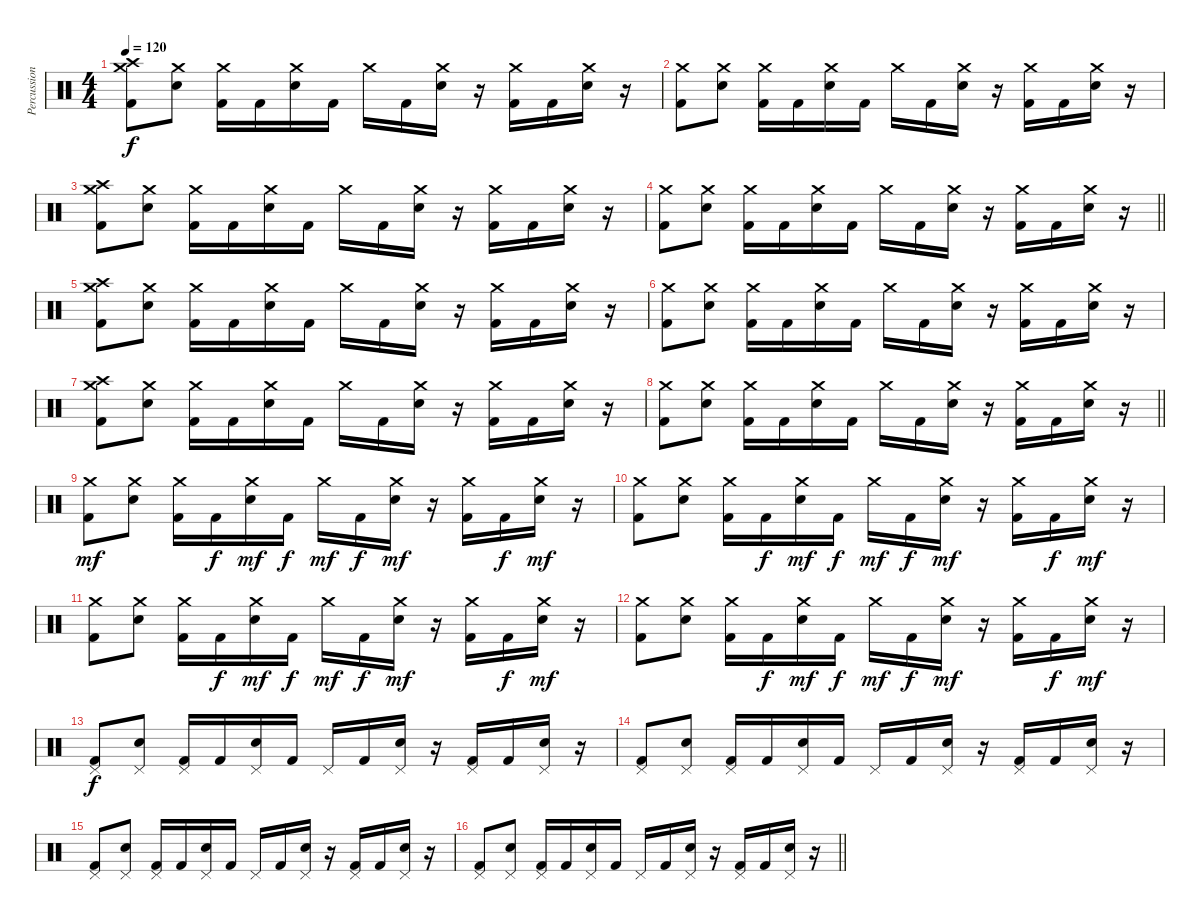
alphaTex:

\track ("Percussion" "Percussion") {instrument percussion}
\staff {score}
\articulation defaults
\ts (4 4)
\tempo 120
\clef neutral
\ks c
("Crash medium (hit)" "Crash high (hit)" "Kick (hit) 2").8{dy f} ("Crash medium (hit)" "Electric Snare (hit)").8 ("Crash medium (hit)" "Kick (hit) 2").16 "Kick (hit) 2".16 ("Crash medium (hit)" "Electric Snare (hit)").16 "Kick (hit) 2".16 "Crash medium (hit)".16 "Kick (hit) 2".16 ("Crash medium (hit)" "Electric Snare (hit)").16 r.16 ("Crash medium (hit)" "Kick (hit) 2").16 "Kick (hit) 2".16 ("Crash medium (hit)" "Electric Snare (hit)").16 r.16 |
("Crash medium (hit)" "Kick (hit) 2").8 ("Crash medium (hit)" "Electric Snare (hit)").8 ("Crash medium (hit)" "Kick (hit) 2").16 "Kick (hit) 2".16 ("Crash medium (hit)" "Electric Snare (hit)").16 "Kick (hit) 2".16 "Crash medium (hit)".16 "Kick (hit) 2".16 ("Crash medium (hit)" "Electric Snare (hit)").16 r.16 ("Crash medium (hit)" "Kick (hit) 2").16 "Kick (hit) 2".16 ("Crash medium (hit)" "Electric Snare (hit)").16 r.16 |
("Crash medium (hit)" "Crash high (hit)" "Kick (hit) 2").8 ("Crash medium (hit)" "Electric Snare (hit)").8 ("Crash medium (hit)" "Kick (hit) 2").16 "Kick (hit) 2".16 ("Crash medium (hit)" "Electric Snare (hit)").16 "Kick (hit) 2".16 "Crash medium (hit)".16 "Kick (hit) 2".16 ("Crash medium (hit)" "Electric Snare (hit)").16 r.16 ("Crash medium (hit)" "Kick (hit) 2").16 "Kick (hit) 2".16 ("Crash medium (hit)" "Electric Snare (hit)").16 r.16 |
\barLineRight lightlight
("Crash medium (hit)" "Kick (hit) 2").8 ("Crash medium (hit)" "Electric Snare (hit)").8 ("Crash medium (hit)" "Kick (hit) 2").16 "Kick (hit) 2".16 ("Crash medium (hit)" "Electric Snare (hit)").16 "Kick (hit) 2".16 "Crash medium (hit)".16 "Kick (hit) 2".16 ("Crash medium (hit)" "Electric Snare (hit)").16 r.16 ("Crash medium (hit)" "Kick (hit) 2").16 "Kick (hit) 2".16 ("Crash medium (hit)" "Electric Snare (hit)").16 r.16 |
("Crash medium (hit)" "Crash high (hit)" "Kick (hit) 2").8 ("Crash medium (hit)" "Electric Snare (hit)").8 ("Crash medium (hit)" "Kick (hit) 2").16 "Kick (hit) 2".16 ("Crash medium (hit)" "Electric Snare (hit)").16 "Kick (hit) 2".16 "Crash medium (hit)".16 "Kick (hit) 2".16 ("Crash medium (hit)" "Electric Snare (hit)").16 r.16 ("Crash medium (hit)" "Kick (hit) 2").16 "Kick (hit) 2".16 ("Crash medium (hit)" "Electric Snare (hit)").16 r.16 |
("Crash medium (hit)" "Kick (hit) 2").8 ("Crash medium (hit)" "Electric Snare (hit)").8 ("Crash medium (hit)" "Kick (hit) 2").16 "Kick (hit) 2".16 ("Crash medium (hit)" "Electric Snare (hit)").16 "Kick (hit) 2".16 "Crash medium (hit)".16 "Kick (hit) 2".16 ("Crash medium (hit)" "Electric Snare (hit)").16 r.16 ("Crash medium (hit)" "Kick (hit) 2").16 "Kick (hit) 2".16 ("Crash medium (hit)" "Electric Snare (hit)").16 r.16 |
("Crash medium (hit)" "Crash high (hit)" "Kick (hit) 2").8 ("Crash medium (hit)" "Electric Snare (hit)").8 ("Crash medium (hit)" "Kick (hit) 2").16 "Kick (hit) 2".16 ("Crash medium (hit)" "Electric Snare (hit)").16 "Kick (hit) 2".16 "Crash medium (hit)".16 "Kick (hit) 2".16 ("Crash medium (hit)" "Electric Snare (hit)").16 r.16 ("Crash medium (hit)" "Kick (hit) 2").16 "Kick (hit) 2".16 ("Crash medium (hit)" "Electric Snare (hit)").16 r.16 |
\barLineRight lightlight
("Crash medium (hit)" "Kick (hit) 2").8 ("Crash medium (hit)" "Electric Snare (hit)").8 ("Crash medium (hit)" "Kick (hit) 2").16 "Kick (hit) 2".16 ("Crash medium (hit)" "Electric Snare (hit)").16 "Kick (hit) 2".16 "Crash medium (hit)".16 "Kick (hit) 2".16 ("Crash medium (hit)" "Electric Snare (hit)").16 r.16 ("Crash medium (hit)" "Kick (hit) 2").16 "Kick (hit) 2".16 ("Crash medium (hit)" "Electric Snare (hit)").16 r.16 |
("Crash medium (hit)" "Kick (hit) 2").8{dy mf} ("Crash medium (hit)" "Electric Snare (hit)").8 ("Crash medium (hit)" "Kick (hit) 2").16 "Kick (hit) 2".16{dy f} ("Crash medium (hit)" "Electric Snare (hit)").16{dy mf} "Kick (hit) 2".16{dy f} "Crash medium (hit)".16{dy mf} "Kick (hit) 2".16{dy f} ("Crash medium (hit)" "Electric Snare (hit)").16{dy mf} r.16 ("Crash medium (hit)" "Kick (hit) 2").16 "Kick (hit) 2".16{dy f} ("Crash medium (hit)" "Electric Snare (hit)").16{dy mf} r.16 |
("Crash medium (hit)" "Kick (hit) 2").8 ("Crash medium (hit)" "Electric Snare (hit)").8 ("Crash medium (hit)" "Kick (hit) 2").16 "Kick (hit) 2".16{dy f} ("Crash medium (hit)" "Electric Snare (hit)").16{dy mf} "Kick (hit) 2".16{dy f} "Crash medium (hit)".16{dy mf} "Kick (hit) 2".16{dy f} ("Crash medium (hit)" "Electric Snare (hit)").16{dy mf} r.16 ("Crash medium (hit)" "Kick (hit) 2").16 "Kick (hit) 2".16{dy f} ("Crash medium (hit)" "Electric Snare (hit)").16{dy mf} r.16 |
("Crash medium (hit)" "Kick (hit) 2").8 ("Crash medium (hit)" "Electric Snare (hit)").8 ("Crash medium (hit)" "Kick (hit) 2").16 "Kick (hit) 2".16{dy f} ("Crash medium (hit)" "Electric Snare (hit)").16{dy mf} "Kick (hit) 2".16{dy f} "Crash medium (hit)".16{dy mf} "Kick (hit) 2".16{dy f} ("Crash medium (hit)" "Electric Snare (hit)").16{dy mf} r.16 ("Crash medium (hit)" "Kick (hit) 2").16 "Kick (hit) 2".16{dy f} ("Crash medium (hit)" "Electric Snare (hit)").16{dy mf} r.16 |
("Crash medium (hit)" "Kick (hit) 2").8 ("Crash medium (hit)" "Electric Snare (hit)").8 ("Crash medium (hit)" "Kick (hit) 2").16 "Kick (hit) 2".16{dy f} ("Crash medium (hit)" "Electric Snare (hit)").16{dy mf} "Kick (hit) 2".16{dy f} "Crash medium (hit)".16{dy mf} "Kick (hit) 2".16{dy f} ("Crash medium (hit)" "Electric Snare (hit)").16{dy mf} r.16 ("Crash medium (hit)" "Kick (hit) 2").16 "Kick (hit) 2".16{dy f} ("Crash medium (hit)" "Electric Snare (hit)").16{dy mf} r.16 |
("Pedal Hi-Hat (hit)" "Kick (hit) 2").8{dy f} ("Pedal Hi-Hat (hit)" "Electric Snare (hit)").8 ("Pedal Hi-Hat (hit)" "Kick (hit) 2").16 "Kick (hit) 2".16 ("Pedal Hi-Hat (hit)" "Electric Snare (hit)").16 "Kick (hit) 2".16 "Pedal Hi-Hat (hit)".16 "Kick (hit) 2".16 ("Pedal Hi-Hat (hit)" "Electric Snare (hit)").16 r.16 ("Pedal Hi-Hat (hit)" "Kick (hit) 2").16 "Kick (hit) 2".16 ("Pedal Hi-Hat (hit)" "Electric Snare (hit)").16 r.16 |
("Pedal Hi-Hat (hit)" "Kick (hit) 2").8 ("Pedal Hi-Hat (hit)" "Electric Snare (hit)").8 ("Pedal Hi-Hat (hit)" "Kick (hit) 2").16 "Kick (hit) 2".16 ("Pedal Hi-Hat (hit)" "Electric Snare (hit)").16 "Kick (hit) 2".16 "Pedal Hi-Hat (hit)".16 "Kick (hit) 2".16 ("Pedal Hi-Hat (hit)" "Electric Snare (hit)").16 r.16 ("Pedal Hi-Hat (hit)" "Kick (hit) 2").16 "Kick (hit) 2".16 ("Pedal Hi-Hat (hit)" "Electric Snare (hit)").16 r.16 |
("Pedal Hi-Hat (hit)" "Kick (hit) 2").8 ("Pedal Hi-Hat (hit)" "Electric Snare (hit)").8 ("Pedal Hi-Hat (hit)" "Kick (hit) 2").16 "Kick (hit) 2".16 ("Pedal Hi-Hat (hit)" "Electric Snare (hit)").16 "Kick (hit) 2".16 "Pedal Hi-Hat (hit)".16 "Kick (hit) 2".16 ("Pedal Hi-Hat (hit)" "Electric Snare (hit)").16 r.16 ("Pedal Hi-Hat (hit)" "Kick (hit) 2").16 "Kick (hit) 2".16 ("Pedal Hi-Hat (hit)" "Electric Snare (hit)").16 r.16 |
\barLineRight lightlight
("Pedal Hi-Hat (hit)" "Kick (hit) 2").8 ("Pedal Hi-Hat (hit)" "Electric Snare (hit)").8 ("Pedal Hi-Hat (hit)" "Kick (hit) 2").16 "Kick (hit) 2".16 ("Pedal Hi-Hat (hit)" "Electric Snare (hit)").16 "Kick (hit) 2".16 "Pedal Hi-Hat (hit)".16 "Kick (hit) 2".16 ("Pedal Hi-Hat (hit)" "Electric Snare (hit)").16 r.16 ("Pedal Hi-Hat (hit)" "Kick (hit) 2").16 "Kick (hit) 2".16 ("Pedal Hi-Hat (hit)" "Electric Snare (hit)").16 r.16
